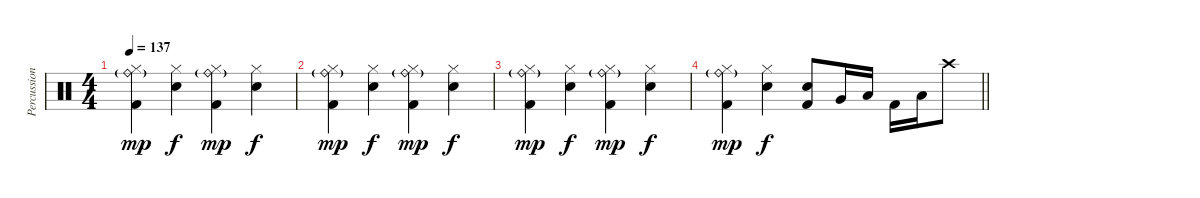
\track ("Percussion" "Percussion") {instrument percussion}
\staff {score}
\articulation defaults
\ts (4 4)
\tempo 137
\clef neutral
\ks c
("Hi-Hat (closed)" "Ride (bell)"{g} "Kick (hit) 2").4{dy mp} ("Hi-Hat (closed)" "Snare (hit) 2").4{dy f} ("Hi-Hat (closed)" "Ride (bell)"{g} "Kick (hit) 2").4{dy mp} ("Hi-Hat (closed)" "Snare (hit) 2").4{dy f} |
("Hi-Hat (closed)" "Ride (bell)"{g} "Kick (hit) 2").4{dy mp} ("Hi-Hat (closed)" "Snare (hit) 2").4{dy f} ("Hi-Hat (closed)" "Ride (bell)"{g} "Kick (hit) 2").4{dy mp} ("Hi-Hat (closed)" "Snare (hit) 2").4{dy f} |
("Hi-Hat (closed)" "Ride (bell)"{g} "Kick (hit) 2").4{dy mp} ("Hi-Hat (closed)" "Snare (hit) 2").4{dy f} ("Hi-Hat (closed)" "Ride (bell)"{g} "Kick (hit) 2").4{dy mp} ("Hi-Hat (closed)" "Snare (hit) 2").4{dy f} |
\barLineRight lightlight
("Hi-Hat (closed)" "Ride (bell)"{g} "Kick (hit) 2").4{dy mp} ("Hi-Hat (closed)" "Snare (hit) 2").4{dy f} ("Snare (hit) 2" "Kick (hit) 2").8 "Very Low Tom (hit)".16 "Low Floor Tom (hit)".16 "Kick (hit) 2".16 "Low Floor Tom (hit)".16 "Crash high (hit)".8
